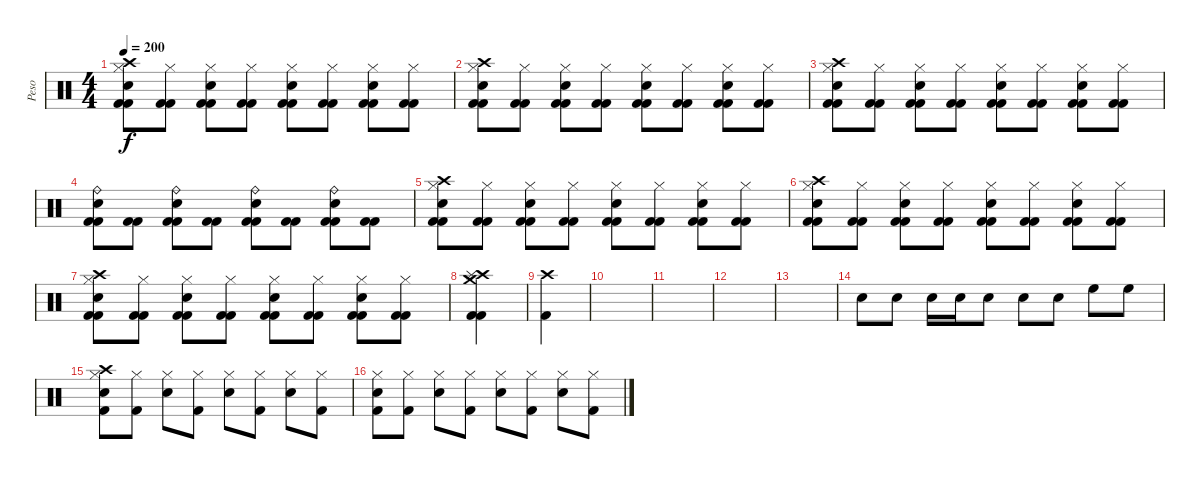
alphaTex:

\track ("Peso" "Peso") {instrument percussion}
\staff {score}
\articulation defaults
\ts (4 4)
\tempo 200
\clef neutral
\ks c
("Crash high (hit)" "Hi-Hat (closed)" "Snare (hit) 2" "Kick (hit) 2" "Kick (hit) 2").8{dy f} ("Hi-Hat (closed)" "Kick (hit) 2" "Kick (hit) 2").8 ("Hi-Hat (closed)" "Snare (hit) 2" "Kick (hit) 2" "Kick (hit) 2").8 ("Hi-Hat (closed)" "Kick (hit) 2" "Kick (hit) 2").8 ("Hi-Hat (closed)" "Snare (hit) 2" "Kick (hit) 2" "Kick (hit) 2").8 ("Hi-Hat (closed)" "Kick (hit) 2" "Kick (hit) 2").8 ("Hi-Hat (closed)" "Snare (hit) 2" "Kick (hit) 2" "Kick (hit) 2").8 ("Hi-Hat (closed)" "Kick (hit) 2" "Kick (hit) 2").8 |
("Crash high (hit)" "Hi-Hat (closed)" "Snare (hit) 2" "Kick (hit) 2" "Kick (hit) 2").8 ("Hi-Hat (closed)" "Kick (hit) 2" "Kick (hit) 2").8 ("Hi-Hat (closed)" "Snare (hit) 2" "Kick (hit) 2" "Kick (hit) 2").8 ("Hi-Hat (closed)" "Kick (hit) 2" "Kick (hit) 2").8 ("Hi-Hat (closed)" "Snare (hit) 2" "Kick (hit) 2" "Kick (hit) 2").8 ("Hi-Hat (closed)" "Kick (hit) 2" "Kick (hit) 2").8 ("Hi-Hat (closed)" "Snare (hit) 2" "Kick (hit) 2" "Kick (hit) 2").8 ("Hi-Hat (closed)" "Kick (hit) 2" "Kick (hit) 2").8 |
("Crash high (hit)" "Hi-Hat (closed)" "Snare (hit) 2" "Kick (hit) 2" "Kick (hit) 2").8 ("Hi-Hat (closed)" "Kick (hit) 2" "Kick (hit) 2").8 ("Hi-Hat (closed)" "Snare (hit) 2" "Kick (hit) 2" "Kick (hit) 2").8 ("Hi-Hat (closed)" "Kick (hit) 2" "Kick (hit) 2").8 ("Hi-Hat (closed)" "Snare (hit) 2" "Kick (hit) 2" "Kick (hit) 2").8 ("Hi-Hat (closed)" "Kick (hit) 2" "Kick (hit) 2").8 ("Hi-Hat (closed)" "Snare (hit) 2" "Kick (hit) 2" "Kick (hit) 2").8 ("Hi-Hat (closed)" "Kick (hit) 2" "Kick (hit) 2").8 |
("Ride (bell)" "Snare (hit) 2" "Kick (hit) 2" "Kick (hit) 2").8 ("Kick (hit) 2" "Kick (hit) 2").8 ("Ride (bell)" "Snare (hit) 2" "Kick (hit) 2" "Kick (hit) 2").8 ("Kick (hit) 2" "Kick (hit) 2").8 ("Ride (bell)" "Snare (hit) 2" "Kick (hit) 2" "Kick (hit) 2").8 ("Kick (hit) 2" "Kick (hit) 2").8 ("Ride (bell)" "Snare (hit) 2" "Kick (hit) 2" "Kick (hit) 2").8 ("Kick (hit) 2" "Kick (hit) 2").8 |
("Crash high (hit)" "Hi-Hat (closed)" "Snare (hit) 2" "Kick (hit) 2" "Kick (hit) 2").8 ("Hi-Hat (closed)" "Kick (hit) 2" "Kick (hit) 2").8 ("Hi-Hat (closed)" "Snare (hit) 2" "Kick (hit) 2" "Kick (hit) 2").8 ("Hi-Hat (closed)" "Kick (hit) 2" "Kick (hit) 2").8 ("Hi-Hat (closed)" "Snare (hit) 2" "Kick (hit) 2" "Kick (hit) 2").8 ("Hi-Hat (closed)" "Kick (hit) 2" "Kick (hit) 2").8 ("Hi-Hat (closed)" "Snare (hit) 2" "Kick (hit) 2" "Kick (hit) 2").8 ("Hi-Hat (closed)" "Kick (hit) 2" "Kick (hit) 2").8 |
("Crash high (hit)" "Hi-Hat (closed)" "Snare (hit) 2" "Kick (hit) 2" "Kick (hit) 2").8 ("Hi-Hat (closed)" "Kick (hit) 2" "Kick (hit) 2").8 ("Hi-Hat (closed)" "Snare (hit) 2" "Kick (hit) 2" "Kick (hit) 2").8 ("Hi-Hat (closed)" "Kick (hit) 2" "Kick (hit) 2").8 ("Hi-Hat (closed)" "Snare (hit) 2" "Kick (hit) 2" "Kick (hit) 2").8 ("Hi-Hat (closed)" "Kick (hit) 2" "Kick (hit) 2").8 ("Hi-Hat (closed)" "Snare (hit) 2" "Kick (hit) 2" "Kick (hit) 2").8 ("Hi-Hat (closed)" "Kick (hit) 2" "Kick (hit) 2").8 |
("Crash high (hit)" "Hi-Hat (closed)" "Snare (hit) 2" "Kick (hit) 2" "Kick (hit) 2").8 ("Hi-Hat (closed)" "Kick (hit) 2" "Kick (hit) 2").8 ("Hi-Hat (closed)" "Snare (hit) 2" "Kick (hit) 2" "Kick (hit) 2").8 ("Hi-Hat (closed)" "Kick (hit) 2" "Kick (hit) 2").8 ("Hi-Hat (closed)" "Snare (hit) 2" "Kick (hit) 2" "Kick (hit) 2").8 ("Hi-Hat (closed)" "Kick (hit) 2" "Kick (hit) 2").8 ("Hi-Hat (closed)" "Snare (hit) 2" "Kick (hit) 2" "Kick (hit) 2").8 ("Hi-Hat (closed)" "Kick (hit) 2" "Kick (hit) 2").8 |
("Crash high (hit)" "Splash (hit)" "Crash medium (hit)" "Kick (hit) 2" "Kick (hit) 2").4 |
("Crash high (hit)" "Kick (hit) 2").4 |
|
|
|
|
"Snare (hit) 2".8 "Snare (hit) 2".8 "Snare (hit) 2".16 "Snare (hit) 2".16 "Snare (hit) 2".8 "Snare (hit) 2".8 "Snare (hit) 2".8 "High Floor Tom (hit)".8 "High Floor Tom (hit)".8 |
("Crash high (hit)" "Hi-Hat (closed)" "Snare (hit) 2" "Kick (hit) 2").8 ("Hi-Hat (closed)" "Kick (hit) 2").8 ("Hi-Hat (closed)" "Snare (hit) 2").8 ("Hi-Hat (closed)" "Kick (hit) 2").8 ("Hi-Hat (closed)" "Snare (hit) 2").8 ("Hi-Hat (closed)" "Kick (hit) 2").8 ("Hi-Hat (closed)" "Snare (hit) 2").8 ("Hi-Hat (closed)" "Kick (hit) 2").8 |
("Hi-Hat (closed)" "Snare (hit) 2" "Kick (hit) 2").8 ("Hi-Hat (closed)" "Kick (hit) 2").8 ("Hi-Hat (closed)" "Snare (hit) 2").8 ("Hi-Hat (closed)" "Kick (hit) 2").8 ("Hi-Hat (closed)" "Snare (hit) 2").8 ("Hi-Hat (closed)" "Kick (hit) 2").8 ("Hi-Hat (closed)" "Snare (hit) 2").8 ("Hi-Hat (closed)" "Kick (hit) 2").8
